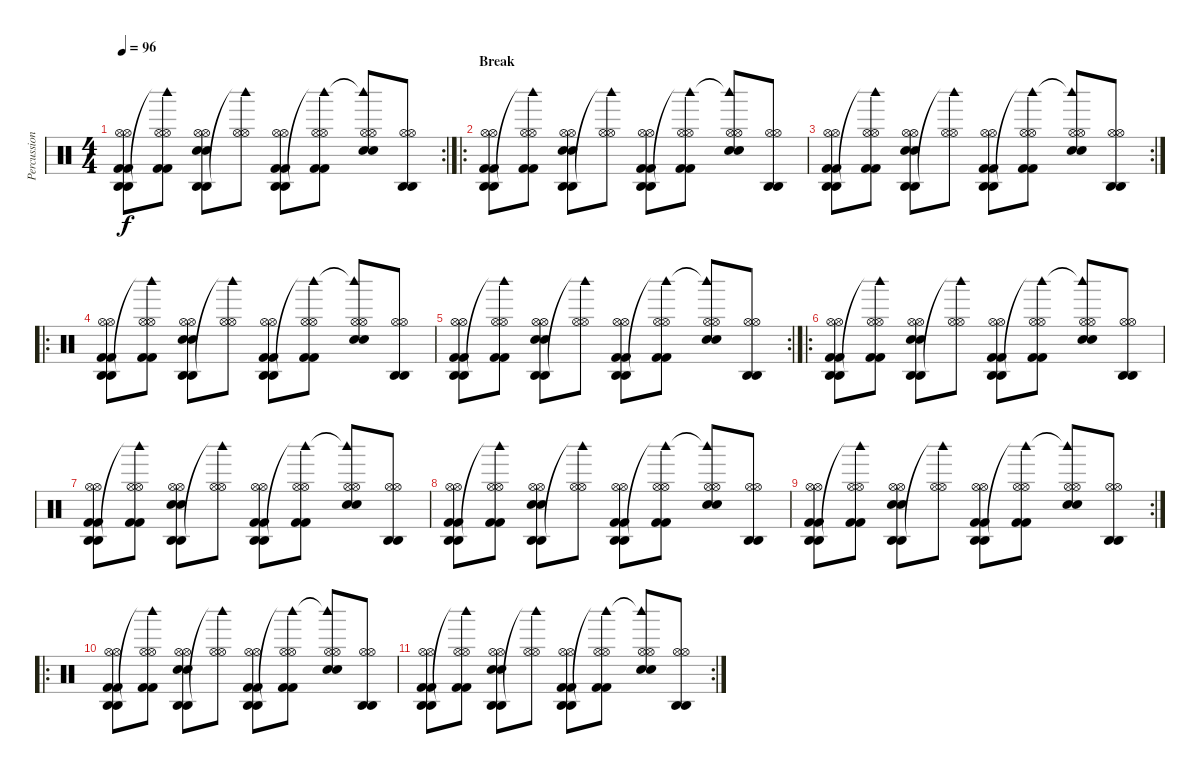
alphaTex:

\track ("Percussions" "Percussion") {instrument percussion}
\staff {score}
\articulation defaults
\rc 2
\ts (4 4)
\tempo 96
\clef neutral
\ks c
("Agogo high (hit)" "Hi-Hat (open)" "Hi-Hat (open)" "Agogo high (hit)" "Kick (hit) 2" "Kick (hit) 2").8{dy f} ("Woodblock high (hit)"{t} "Hi-Hat (open)" "Hi-Hat (open)" "Kick (hit) 2" "Kick (hit) 2").8 ("Agogo high (hit)" "Hi-Hat (open)" "Hi-Hat (open)" "Electric Snare (hit)" "Electric Snare (hit)" "Agogo high (hit)").8 ("Woodblock high (hit)"{t} "Hi-Hat (open)" "Hi-Hat (open)").8 ("Agogo high (hit)" "Hi-Hat (open)" "Hi-Hat (open)" "Agogo high (hit)" "Kick (hit) 2" "Kick (hit) 2").8 ("Woodblock high (hit)"{t} "Hi-Hat (open)" "Hi-Hat (open)" "Kick (hit) 2" "Kick (hit) 2").8 ("Woodblock high (hit)"{t} "Hi-Hat (open)" "Hi-Hat (open)" "Electric Snare (hit)" "Electric Snare (hit)").8 ("Agogo high (hit)" "Hi-Hat (open)" "Hi-Hat (open)" "Agogo high (hit)").8 |
\ro
\section ("" "Break")
("Agogo high (hit)" "Hi-Hat (open)" "Hi-Hat (open)" "Agogo high (hit)" "Kick (hit) 2" "Kick (hit) 2").8 ("Woodblock high (hit)"{t} "Hi-Hat (open)" "Hi-Hat (open)" "Kick (hit) 2" "Kick (hit) 2").8 ("Agogo high (hit)" "Hi-Hat (open)" "Hi-Hat (open)" "Electric Snare (hit)" "Electric Snare (hit)" "Agogo high (hit)").8 ("Woodblock high (hit)"{t} "Hi-Hat (open)" "Hi-Hat (open)").8 ("Agogo high (hit)" "Hi-Hat (open)" "Hi-Hat (open)" "Agogo high (hit)" "Kick (hit) 2" "Kick (hit) 2").8 ("Woodblock high (hit)"{t} "Hi-Hat (open)" "Hi-Hat (open)" "Kick (hit) 2" "Kick (hit) 2").8 ("Woodblock high (hit)"{t} "Hi-Hat (open)" "Hi-Hat (open)" "Electric Snare (hit)" "Electric Snare (hit)").8 ("Agogo high (hit)" "Hi-Hat (open)" "Hi-Hat (open)" "Agogo high (hit)").8 |
\rc 2
("Agogo high (hit)" "Hi-Hat (open)" "Hi-Hat (open)" "Agogo high (hit)" "Kick (hit) 2" "Kick (hit) 2").8 ("Woodblock high (hit)"{t} "Hi-Hat (open)" "Hi-Hat (open)" "Kick (hit) 2" "Kick (hit) 2").8 ("Agogo high (hit)" "Hi-Hat (open)" "Hi-Hat (open)" "Electric Snare (hit)" "Electric Snare (hit)" "Agogo high (hit)").8 ("Woodblock high (hit)"{t} "Hi-Hat (open)" "Hi-Hat (open)").8 ("Agogo high (hit)" "Hi-Hat (open)" "Hi-Hat (open)" "Agogo high (hit)" "Kick (hit) 2" "Kick (hit) 2").8 ("Woodblock high (hit)"{t} "Hi-Hat (open)" "Hi-Hat (open)" "Kick (hit) 2" "Kick (hit) 2").8 ("Woodblock high (hit)"{t} "Hi-Hat (open)" "Hi-Hat (open)" "Electric Snare (hit)" "Electric Snare (hit)").8 ("Agogo high (hit)" "Hi-Hat (open)" "Hi-Hat (open)" "Agogo high (hit)").8 |
\ro
("Agogo high (hit)" "Hi-Hat (open)" "Hi-Hat (open)" "Agogo high (hit)" "Kick (hit) 2" "Kick (hit) 2").8 ("Woodblock high (hit)"{t} "Hi-Hat (open)" "Hi-Hat (open)" "Kick (hit) 2" "Kick (hit) 2").8 ("Agogo high (hit)" "Hi-Hat (open)" "Hi-Hat (open)" "Electric Snare (hit)" "Electric Snare (hit)" "Agogo high (hit)").8 ("Woodblock high (hit)"{t} "Hi-Hat (open)" "Hi-Hat (open)").8 ("Agogo high (hit)" "Hi-Hat (open)" "Hi-Hat (open)" "Agogo high (hit)" "Kick (hit) 2" "Kick (hit) 2").8 ("Woodblock high (hit)"{t} "Hi-Hat (open)" "Hi-Hat (open)" "Kick (hit) 2" "Kick (hit) 2").8 ("Woodblock high (hit)"{t} "Hi-Hat (open)" "Hi-Hat (open)" "Electric Snare (hit)" "Electric Snare (hit)").8 ("Agogo high (hit)" "Hi-Hat (open)" "Hi-Hat (open)" "Agogo high (hit)").8 |
\rc 2
("Agogo high (hit)" "Hi-Hat (open)" "Hi-Hat (open)" "Agogo high (hit)" "Kick (hit) 2" "Kick (hit) 2").8 ("Woodblock high (hit)"{t} "Hi-Hat (open)" "Hi-Hat (open)" "Kick (hit) 2" "Kick (hit) 2").8 ("Agogo high (hit)" "Hi-Hat (open)" "Hi-Hat (open)" "Electric Snare (hit)" "Electric Snare (hit)" "Agogo high (hit)").8 ("Woodblock high (hit)"{t} "Hi-Hat (open)" "Hi-Hat (open)").8 ("Agogo high (hit)" "Hi-Hat (open)" "Hi-Hat (open)" "Agogo high (hit)" "Kick (hit) 2" "Kick (hit) 2").8 ("Woodblock high (hit)"{t} "Hi-Hat (open)" "Hi-Hat (open)" "Kick (hit) 2" "Kick (hit) 2").8 ("Woodblock high (hit)"{t} "Hi-Hat (open)" "Hi-Hat (open)" "Electric Snare (hit)" "Electric Snare (hit)").8 ("Agogo high (hit)" "Hi-Hat (open)" "Hi-Hat (open)" "Agogo high (hit)").8 |
\ro
("Agogo high (hit)" "Hi-Hat (open)" "Hi-Hat (open)" "Agogo high (hit)" "Kick (hit) 2" "Kick (hit) 2").8 ("Woodblock high (hit)"{t} "Hi-Hat (open)" "Hi-Hat (open)" "Kick (hit) 2" "Kick (hit) 2").8 ("Agogo high (hit)" "Hi-Hat (open)" "Hi-Hat (open)" "Electric Snare (hit)" "Electric Snare (hit)" "Agogo high (hit)").8 ("Woodblock high (hit)"{t} "Hi-Hat (open)" "Hi-Hat (open)").8 ("Agogo high (hit)" "Hi-Hat (open)" "Hi-Hat (open)" "Agogo high (hit)" "Kick (hit) 2" "Kick (hit) 2").8 ("Woodblock high (hit)"{t} "Hi-Hat (open)" "Hi-Hat (open)" "Kick (hit) 2" "Kick (hit) 2").8 ("Woodblock high (hit)"{t} "Hi-Hat (open)" "Hi-Hat (open)" "Electric Snare (hit)" "Electric Snare (hit)").8 ("Agogo high (hit)" "Hi-Hat (open)" "Hi-Hat (open)" "Agogo high (hit)").8 |
("Agogo high (hit)" "Hi-Hat (open)" "Hi-Hat (open)" "Agogo high (hit)" "Kick (hit) 2" "Kick (hit) 2").8 ("Woodblock high (hit)"{t} "Hi-Hat (open)" "Hi-Hat (open)" "Kick (hit) 2" "Kick (hit) 2").8 ("Agogo high (hit)" "Hi-Hat (open)" "Hi-Hat (open)" "Electric Snare (hit)" "Electric Snare (hit)" "Agogo high (hit)").8 ("Woodblock high (hit)"{t} "Hi-Hat (open)" "Hi-Hat (open)").8 ("Agogo high (hit)" "Hi-Hat (open)" "Hi-Hat (open)" "Agogo high (hit)" "Kick (hit) 2" "Kick (hit) 2").8 ("Woodblock high (hit)"{t} "Hi-Hat (open)" "Hi-Hat (open)" "Kick (hit) 2" "Kick (hit) 2").8 ("Woodblock high (hit)"{t} "Hi-Hat (open)" "Hi-Hat (open)" "Electric Snare (hit)" "Electric Snare (hit)").8 ("Agogo high (hit)" "Hi-Hat (open)" "Hi-Hat (open)" "Agogo high (hit)").8 |
("Agogo high (hit)" "Hi-Hat (open)" "Hi-Hat (open)" "Agogo high (hit)" "Kick (hit) 2" "Kick (hit) 2").8 ("Woodblock high (hit)"{t} "Hi-Hat (open)" "Hi-Hat (open)" "Kick (hit) 2" "Kick (hit) 2").8 ("Agogo high (hit)" "Hi-Hat (open)" "Hi-Hat (open)" "Electric Snare (hit)" "Electric Snare (hit)" "Agogo high (hit)").8 ("Woodblock high (hit)"{t} "Hi-Hat (open)" "Hi-Hat (open)").8 ("Agogo high (hit)" "Hi-Hat (open)" "Hi-Hat (open)" "Agogo high (hit)" "Kick (hit) 2" "Kick (hit) 2").8 ("Woodblock high (hit)"{t} "Hi-Hat (open)" "Hi-Hat (open)" "Kick (hit) 2" "Kick (hit) 2").8 ("Woodblock high (hit)"{t} "Hi-Hat (open)" "Hi-Hat (open)" "Electric Snare (hit)" "Electric Snare (hit)").8 ("Agogo high (hit)" "Hi-Hat (open)" "Hi-Hat (open)" "Agogo high (hit)").8 |
\rc 2
("Agogo high (hit)" "Hi-Hat (open)" "Hi-Hat (open)" "Agogo high (hit)" "Kick (hit) 2" "Kick (hit) 2").8 ("Woodblock high (hit)"{t} "Hi-Hat (open)" "Hi-Hat (open)" "Kick (hit) 2" "Kick (hit) 2").8 ("Agogo high (hit)" "Hi-Hat (open)" "Hi-Hat (open)" "Electric Snare (hit)" "Electric Snare (hit)" "Agogo high (hit)").8 ("Woodblock high (hit)"{t} "Hi-Hat (open)" "Hi-Hat (open)").8 ("Agogo high (hit)" "Hi-Hat (open)" "Hi-Hat (open)" "Agogo high (hit)" "Kick (hit) 2" "Kick (hit) 2").8 ("Woodblock high (hit)"{t} "Hi-Hat (open)" "Hi-Hat (open)" "Kick (hit) 2" "Kick (hit) 2").8 ("Woodblock high (hit)"{t} "Hi-Hat (open)" "Hi-Hat (open)" "Electric Snare (hit)" "Electric Snare (hit)").8 ("Agogo high (hit)" "Hi-Hat (open)" "Hi-Hat (open)" "Agogo high (hit)").8 |
\ro
("Agogo high (hit)" "Hi-Hat (open)" "Hi-Hat (open)" "Agogo high (hit)" "Kick (hit) 2" "Kick (hit) 2").8 ("Woodblock high (hit)"{t} "Hi-Hat (open)" "Hi-Hat (open)" "Kick (hit) 2" "Kick (hit) 2").8 ("Agogo high (hit)" "Hi-Hat (open)" "Hi-Hat (open)" "Electric Snare (hit)" "Electric Snare (hit)" "Agogo high (hit)").8 ("Woodblock high (hit)"{t} "Hi-Hat (open)" "Hi-Hat (open)").8 ("Agogo high (hit)" "Hi-Hat (open)" "Hi-Hat (open)" "Agogo high (hit)" "Kick (hit) 2" "Kick (hit) 2").8 ("Woodblock high (hit)"{t} "Hi-Hat (open)" "Hi-Hat (open)" "Kick (hit) 2" "Kick (hit) 2").8 ("Woodblock high (hit)"{t} "Hi-Hat (open)" "Hi-Hat (open)" "Electric Snare (hit)" "Electric Snare (hit)").8 ("Agogo high (hit)" "Hi-Hat (open)" "Hi-Hat (open)" "Agogo high (hit)").8 |
\rc 2
("Agogo high (hit)" "Hi-Hat (open)" "Hi-Hat (open)" "Agogo high (hit)" "Kick (hit) 2" "Kick (hit) 2").8 ("Woodblock high (hit)"{t} "Hi-Hat (open)" "Hi-Hat (open)" "Kick (hit) 2" "Kick (hit) 2").8 ("Agogo high (hit)" "Hi-Hat (open)" "Hi-Hat (open)" "Electric Snare (hit)" "Electric Snare (hit)" "Agogo high (hit)").8 ("Woodblock high (hit)"{t} "Hi-Hat (open)" "Hi-Hat (open)").8 ("Agogo high (hit)" "Hi-Hat (open)" "Hi-Hat (open)" "Agogo high (hit)" "Kick (hit) 2" "Kick (hit) 2").8 ("Woodblock high (hit)"{t} "Hi-Hat (open)" "Hi-Hat (open)" "Kick (hit) 2" "Kick (hit) 2").8 ("Woodblock high (hit)"{t} "Hi-Hat (open)" "Hi-Hat (open)" "Electric Snare (hit)" "Electric Snare (hit)").8 ("Agogo high (hit)" "Hi-Hat (open)" "Hi-Hat (open)" "Agogo high (hit)").8
